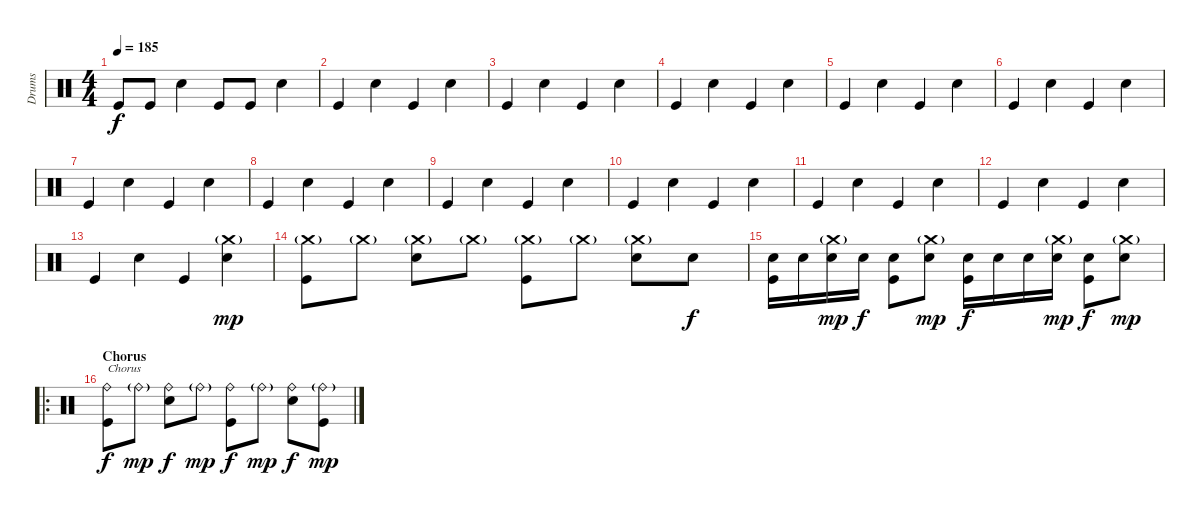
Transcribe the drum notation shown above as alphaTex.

\track ("Drums" "Drums") {instrument percussion}
\staff {score}
\articulation defaults
\ts (4 4)
\tempo 185
\clef neutral
\ks c "Kick (hit)".8{dy f} "Kick (hit)".8 "Snare (hit) 2".4 "Kick (hit)".8 "Kick (hit)".8 "Snare (hit) 2".4
|
"Kick (hit)".4 "Snare (hit) 2".4 "Kick (hit)".4 "Snare (hit) 2".4 |
"Kick (hit)".4 "Snare (hit) 2".4 "Kick (hit)".4 "Snare (hit) 2".4 |
"Kick (hit)".4 "Snare (hit) 2".4 "Kick (hit)".4 "Snare (hit) 2".4 |
"Kick (hit)".4 "Snare (hit) 2".4 "Kick (hit)".4 "Snare (hit) 2".4 |
"Kick (hit)".4 "Snare (hit) 2".4 "Kick (hit)".4 "Snare (hit) 2".4 |
"Kick (hit)".4 "Snare (hit) 2".4 "Kick (hit)".4 "Snare (hit) 2".4 |
"Kick (hit)".4 "Snare (hit) 2".4 "Kick (hit)".4 "Snare (hit) 2".4 |
"Kick (hit)".4 "Snare (hit) 2".4 "Kick (hit)".4 "Snare (hit) 2".4 |
"Kick (hit)".4 "Snare (hit) 2".4 "Kick (hit)".4 "Snare (hit) 2".4 |
"Kick (hit)".4 "Snare (hit) 2".4 "Kick (hit)".4 "Snare (hit) 2".4 |
"Kick (hit)".4 "Snare (hit) 2".4 "Kick (hit)".4 "Snare (hit) 2".4 |
"Kick (hit)".4 "Snare (hit) 2".4 "Kick (hit)".4 ("Crash medium (hit)"{g} "Snare (hit) 2").4{dy mp} |
("Crash medium (hit)"{g} "Kick (hit)").8 "Crash medium (hit)"{g}.8 ("Crash medium (hit)"{g} "Snare (hit) 2").8 "Crash medium (hit)"{g}.8 ("Crash medium (hit)"{g} "Kick (hit)").8 "Crash medium (hit)"{g}.8 ("Crash medium (hit)"{g} "Snare (hit) 2").8 "Snare (hit) 2".8{dy f} |
("Snare (hit) 2" "Kick (hit)").16 "Snare (hit) 2".16 ("Crash medium (hit)"{g} "Snare (hit) 2").16{dy mp} "Snare (hit) 2".16{dy f} ("Snare (hit) 2" "Kick (hit)").8 ("Crash medium (hit)"{g} "Snare (hit) 2").8{dy mp} ("Snare (hit) 2" "Kick (hit)").16{dy f} "Snare (hit) 2".16 "Snare (hit) 2".16 ("Crash medium (hit)"{g} "Snare (hit) 2").16{dy mp} ("Snare (hit) 2" "Kick (hit)").8{dy f} ("Crash medium (hit)"{g} "Snare (hit) 2").8{dy mp} |
\ro
\section ("" "Chorus")
("Ride (bell)" "Kick (hit)").8{txt "Chorus" dy f} "Ride (bell)"{g}.8{dy mp} ("Ride (bell)" "Snare (hit) 2").8{dy f} "Ride (bell)"{g}.8{dy mp} ("Ride (bell)" "Kick (hit)").8{dy f} "Ride (bell)"{g}.8{dy mp} ("Ride (bell)" "Snare (hit) 2").8{dy f} ("Ride (bell)"{g} "Kick (hit)").8{dy mp}
